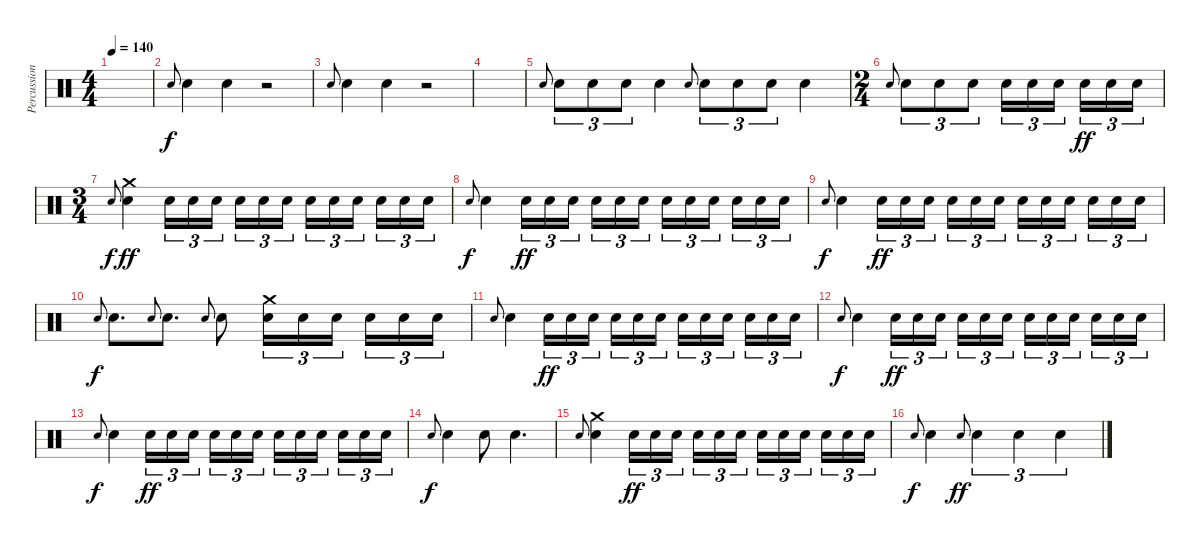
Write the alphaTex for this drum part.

\track ("Percussion" "Percussion") {instrument percussion}
\staff {score}
\articulation defaults
\ts (4 4)
\tempo 140
\clef neutral
\ks c
|
"Snare (hit) 2".8{gr onbeat} "Snare (hit) 2".4 "Snare (hit) 2".4 r.2 |
"Snare (hit) 2".8{gr onbeat} "Snare (hit) 2".4 "Snare (hit) 2".4 r.2 |
|
"Snare (hit) 2".8{gr onbeat} "Snare (hit) 2".8{tu (3 2)} "Snare (hit) 2".8{tu (3 2)} "Snare (hit) 2".8{tu (3 2)} "Snare (hit) 2".4 "Snare (hit) 2".8{gr onbeat} "Snare (hit) 2".8{tu (3 2)} "Snare (hit) 2".8{tu (3 2)} "Snare (hit) 2".8{tu (3 2)} "Snare (hit) 2".4 |
\ts (2 4)
"Snare (hit) 2".8{gr onbeat} "Snare (hit) 2".8{tu (3 2)} "Snare (hit) 2".8{tu (3 2)} "Snare (hit) 2".8{tu (3 2)} "Snare (hit) 2".16{tu (3 2)} "Snare (hit) 2".16{tu (3 2)} "Snare (hit) 2".16{tu (3 2) beam splitsecondary} "Snare (hit) 2".16{tu (3 2) dy ff} "Snare (hit) 2".16{tu (3 2)} "Snare (hit) 2".16{tu (3 2)} |
\ts (3 4)
"Snare (hit) 2".8{gr onbeat dy f} ("Crash medium (hit)" "Snare (hit) 2").4{dy ff} "Snare (hit) 2".16{tu (3 2)} "Snare (hit) 2".16{tu (3 2)} "Snare (hit) 2".16{tu (3 2) beam splitsecondary} "Snare (hit) 2".16{tu (3 2)} "Snare (hit) 2".16{tu (3 2)} "Snare (hit) 2".16{tu (3 2)} "Snare (hit) 2".16{tu (3 2)} "Snare (hit) 2".16{tu (3 2)} "Snare (hit) 2".16{tu (3 2) beam splitsecondary} "Snare (hit) 2".16{tu (3 2)} "Snare (hit) 2".16{tu (3 2)} "Snare (hit) 2".16{tu (3 2)} |
"Snare (hit) 2".8{gr onbeat dy f} "Snare (hit) 2".4 "Snare (hit) 2".16{tu (3 2) dy ff} "Snare (hit) 2".16{tu (3 2)} "Snare (hit) 2".16{tu (3 2) beam splitsecondary} "Snare (hit) 2".16{tu (3 2)} "Snare (hit) 2".16{tu (3 2)} "Snare (hit) 2".16{tu (3 2)} "Snare (hit) 2".16{tu (3 2)} "Snare (hit) 2".16{tu (3 2)} "Snare (hit) 2".16{tu (3 2) beam splitsecondary} "Snare (hit) 2".16{tu (3 2)} "Snare (hit) 2".16{tu (3 2)} "Snare (hit) 2".16{tu (3 2)} |
"Snare (hit) 2".8{gr onbeat dy f} "Snare (hit) 2".4 "Snare (hit) 2".16{tu (3 2) dy ff} "Snare (hit) 2".16{tu (3 2)} "Snare (hit) 2".16{tu (3 2) beam splitsecondary} "Snare (hit) 2".16{tu (3 2)} "Snare (hit) 2".16{tu (3 2)} "Snare (hit) 2".16{tu (3 2)} "Snare (hit) 2".16{tu (3 2)} "Snare (hit) 2".16{tu (3 2)} "Snare (hit) 2".16{tu (3 2) beam splitsecondary} "Snare (hit) 2".16{tu (3 2)} "Snare (hit) 2".16{tu (3 2)} "Snare (hit) 2".16{tu (3 2)} |
"Snare (hit) 2".8{gr onbeat dy f} "Snare (hit) 2".8{d} "Snare (hit) 2".8{gr onbeat} "Snare (hit) 2".8{d} "Snare (hit) 2".8{gr onbeat} "Snare (hit) 2".8 ("Crash medium (hit)" "Snare (hit) 2").16{tu (3 2)} "Snare (hit) 2".16{tu (3 2)} "Snare (hit) 2".16{tu (3 2) beam splitsecondary} "Snare (hit) 2".16{tu (3 2)} "Snare (hit) 2".16{tu (3 2)} "Snare (hit) 2".16{tu (3 2)} |
"Snare (hit) 2".8{gr onbeat} "Snare (hit) 2".4 "Snare (hit) 2".16{tu (3 2) dy ff} "Snare (hit) 2".16{tu (3 2)} "Snare (hit) 2".16{tu (3 2) beam splitsecondary} "Snare (hit) 2".16{tu (3 2)} "Snare (hit) 2".16{tu (3 2)} "Snare (hit) 2".16{tu (3 2)} "Snare (hit) 2".16{tu (3 2)} "Snare (hit) 2".16{tu (3 2)} "Snare (hit) 2".16{tu (3 2) beam splitsecondary} "Snare (hit) 2".16{tu (3 2)} "Snare (hit) 2".16{tu (3 2)} "Snare (hit) 2".16{tu (3 2)} |
"Snare (hit) 2".8{gr onbeat dy f} "Snare (hit) 2".4 "Snare (hit) 2".16{tu (3 2) dy ff} "Snare (hit) 2".16{tu (3 2)} "Snare (hit) 2".16{tu (3 2) beam splitsecondary} "Snare (hit) 2".16{tu (3 2)} "Snare (hit) 2".16{tu (3 2)} "Snare (hit) 2".16{tu (3 2)} "Snare (hit) 2".16{tu (3 2)} "Snare (hit) 2".16{tu (3 2)} "Snare (hit) 2".16{tu (3 2) beam splitsecondary} "Snare (hit) 2".16{tu (3 2)} "Snare (hit) 2".16{tu (3 2)} "Snare (hit) 2".16{tu (3 2)} |
"Snare (hit) 2".8{gr onbeat dy f} "Snare (hit) 2".4 "Snare (hit) 2".16{tu (3 2) dy ff} "Snare (hit) 2".16{tu (3 2)} "Snare (hit) 2".16{tu (3 2) beam splitsecondary} "Snare (hit) 2".16{tu (3 2)} "Snare (hit) 2".16{tu (3 2)} "Snare (hit) 2".16{tu (3 2)} "Snare (hit) 2".16{tu (3 2)} "Snare (hit) 2".16{tu (3 2)} "Snare (hit) 2".16{tu (3 2) beam splitsecondary} "Snare (hit) 2".16{tu (3 2)} "Snare (hit) 2".16{tu (3 2)} "Snare (hit) 2".16{tu (3 2)} |
"Snare (hit) 2".8{gr onbeat dy f} "Snare (hit) 2".4 "Snare (hit) 2".8 "Snare (hit) 2".4{d} |
"Snare (hit) 2".8{gr onbeat} ("Crash medium (hit)" "Snare (hit) 2").4 "Snare (hit) 2".16{tu (3 2) dy ff} "Snare (hit) 2".16{tu (3 2)} "Snare (hit) 2".16{tu (3 2) beam splitsecondary} "Snare (hit) 2".16{tu (3 2)} "Snare (hit) 2".16{tu (3 2)} "Snare (hit) 2".16{tu (3 2)} "Snare (hit) 2".16{tu (3 2)} "Snare (hit) 2".16{tu (3 2)} "Snare (hit) 2".16{tu (3 2) beam splitsecondary} "Snare (hit) 2".16{tu (3 2)} "Snare (hit) 2".16{tu (3 2)} "Snare (hit) 2".16{tu (3 2)} |
"Snare (hit) 2".8{gr onbeat dy f} "Snare (hit) 2".4 "Snare (hit) 2".8{gr onbeat dy ff} "Snare (hit) 2".4{tu (3 2)} "Snare (hit) 2".4{tu (3 2)} "Snare (hit) 2".4{tu (3 2)}
